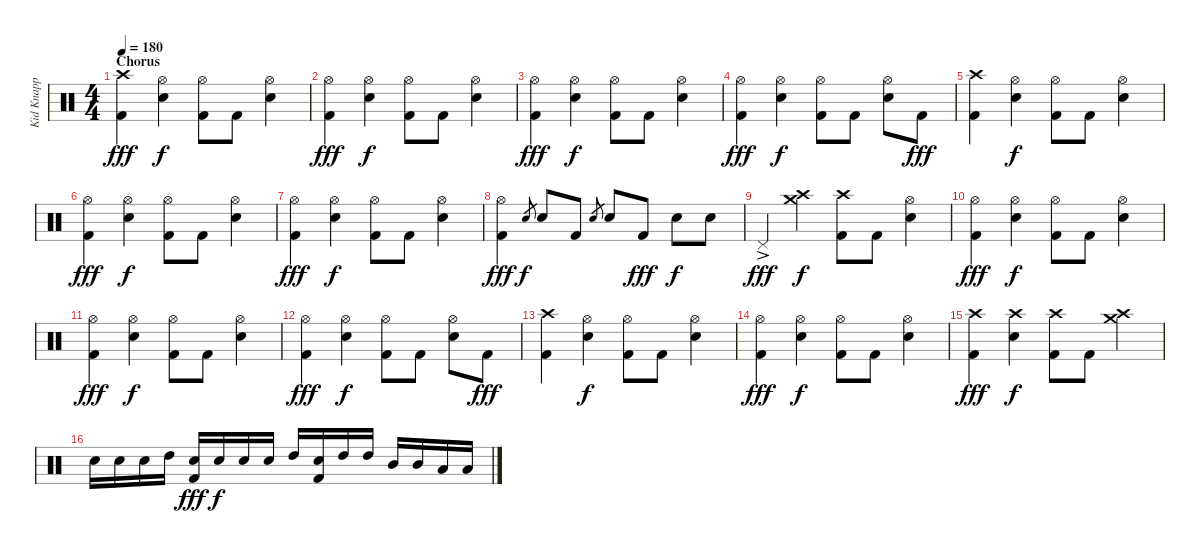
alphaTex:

\track ("Kid Knapp (Drums)" "Kid Knapp ") {instrument percussion}
\staff {score}
\articulation defaults
\ts (4 4)
\section ("" "Chorus")
\tempo 180
\clef neutral
\ks c
("Crash high (hit)" "Kick (hit) 2").4{dy fff} ("Hi-Hat (open)" "Snare (hit) 2").4{dy f} ("Hi-Hat (open)" "Kick (hit) 2").8 "Kick (hit) 2".8 ("Hi-Hat (open)" "Snare (hit) 2").4 |
("Hi-Hat (open)" "Kick (hit) 2").4{dy fff} ("Hi-Hat (open)" "Snare (hit) 2").4{dy f} ("Hi-Hat (open)" "Kick (hit) 2").8 "Kick (hit) 2".8 ("Hi-Hat (open)" "Snare (hit) 2").4 |
("Hi-Hat (open)" "Kick (hit) 2").4{dy fff} ("Hi-Hat (open)" "Snare (hit) 2").4{dy f} ("Hi-Hat (open)" "Kick (hit) 2").8 "Kick (hit) 2".8 ("Hi-Hat (open)" "Snare (hit) 2").4 |
("Hi-Hat (open)" "Kick (hit) 2").4{dy fff} ("Hi-Hat (open)" "Snare (hit) 2").4{dy f} ("Hi-Hat (open)" "Kick (hit) 2").8 "Kick (hit) 2".8 ("Hi-Hat (open)" "Snare (hit) 2").8 "Kick (hit) 2".8{dy fff} |
("Crash high (hit)" "Kick (hit) 2").4 ("Hi-Hat (open)" "Snare (hit) 2").4{dy f} ("Hi-Hat (open)" "Kick (hit) 2").8 "Kick (hit) 2".8 ("Hi-Hat (open)" "Snare (hit) 2").4 |
("Hi-Hat (open)" "Kick (hit) 2").4{dy fff} ("Hi-Hat (open)" "Snare (hit) 2").4{dy f} ("Hi-Hat (open)" "Kick (hit) 2").8 "Kick (hit) 2".8 ("Hi-Hat (open)" "Snare (hit) 2").4 |
("Hi-Hat (open)" "Kick (hit) 2").4{dy fff} ("Hi-Hat (open)" "Snare (hit) 2").4{dy f} ("Hi-Hat (open)" "Kick (hit) 2").8 "Kick (hit) 2".8 ("Hi-Hat (open)" "Snare (hit) 2").4 |
("Hi-Hat (open)" "Kick (hit) 2").4{dy fff} "Snare (hit) 2".8{gr dy f} "Snare (hit) 2".8 "Kick (hit) 2".8 "Snare (hit) 2".8{gr} "Snare (hit) 2".8 "Kick (hit) 2".8{dy fff} "Snare (hit) 2".8{dy f} "Snare (hit) 2".8 |
"Pedal Hi-Hat (hit)"{ac}.4{dy fff} ("Crash high (hit)" "Crash medium (hit)").4{dy f} ("Crash high (hit)" "Kick (hit) 2").8 "Kick (hit) 2".8 ("Hi-Hat (open)" "Snare (hit) 2").4 |
("Hi-Hat (open)" "Kick (hit) 2").4{dy fff} ("Hi-Hat (open)" "Snare (hit) 2").4{dy f} ("Hi-Hat (open)" "Kick (hit) 2").8 "Kick (hit) 2".8 ("Hi-Hat (open)" "Snare (hit) 2").4 |
("Hi-Hat (open)" "Kick (hit) 2").4{dy fff} ("Hi-Hat (open)" "Snare (hit) 2").4{dy f} ("Hi-Hat (open)" "Kick (hit) 2").8 "Kick (hit) 2".8 ("Hi-Hat (open)" "Snare (hit) 2").4 |
("Hi-Hat (open)" "Kick (hit) 2").4{dy fff} ("Hi-Hat (open)" "Snare (hit) 2").4{dy f} ("Hi-Hat (open)" "Kick (hit) 2").8 "Kick (hit) 2".8 ("Hi-Hat (open)" "Snare (hit) 2").8 "Kick (hit) 2".8{dy fff} |
("Crash high (hit)" "Kick (hit) 2").4 ("Hi-Hat (open)" "Snare (hit) 2").4{dy f} ("Hi-Hat (open)" "Kick (hit) 2").8 "Kick (hit) 2".8 ("Hi-Hat (open)" "Snare (hit) 2").4 |
("Hi-Hat (open)" "Kick (hit) 2").4{dy fff} ("Hi-Hat (open)" "Snare (hit) 2").4{dy f} ("Hi-Hat (open)" "Kick (hit) 2").8 "Kick (hit) 2".8 ("Hi-Hat (open)" "Snare (hit) 2").4 |
("Crash high (hit)" "Kick (hit) 2").4{dy fff} ("Crash high (hit)" "Snare (hit) 2").4{dy f} ("Crash high (hit)" "Kick (hit) 2").8 "Kick (hit) 2".8 ("Crash high (hit)" "Crash medium (hit)").4 |
"Snare (hit) 2".16 "Snare (hit) 2".16 "Snare (hit) 2".16 "High Tom (hit)".16 ("Snare (hit) 2" "Kick (hit) 2").16{dy fff} "Snare (hit) 2".16{dy f} "Snare (hit) 2".16 "Snare (hit) 2".16 "High Tom (hit)".16 ("Snare (hit) 2" "Kick (hit) 2").16 "High Tom (hit)".16 "High Tom (hit)".16 "Mid Tom (hit)".16 "Mid Tom (hit)".16 "Low Tom (hit)".16 "Low Tom (hit)".16
